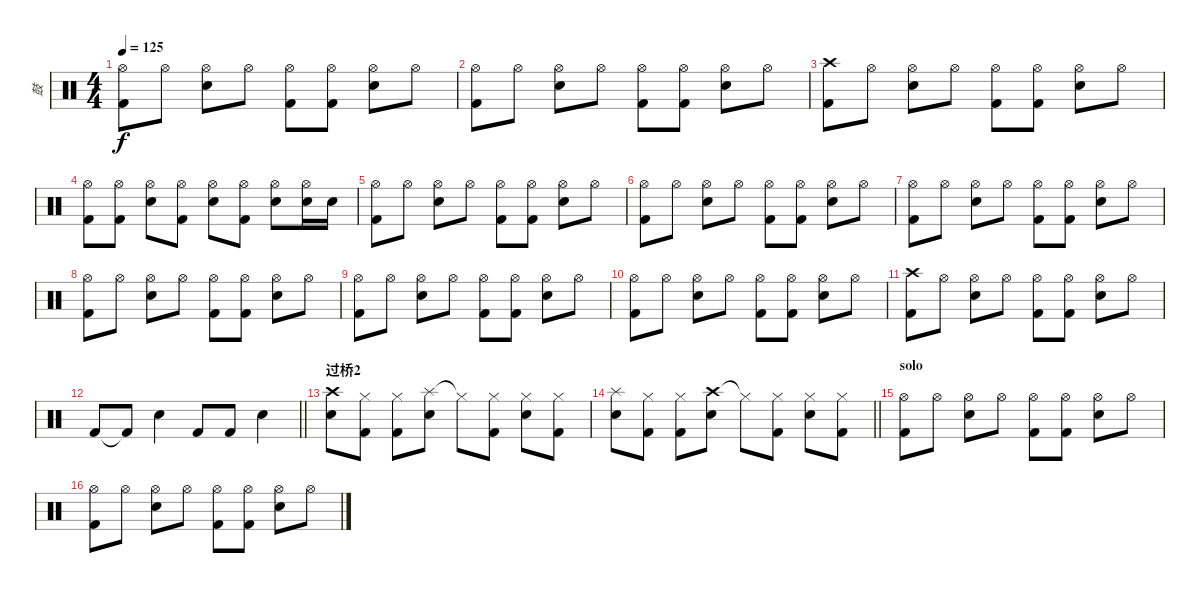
\track ("鼓" "鼓") {instrument percussion}
\staff {score}
\articulation defaults
\ts (4 4)
\tempo 125
\clef neutral
\ks c
("Hi-Hat (open)" "Kick (hit) 2").8{dy f} "Hi-Hat (open)".8 ("Hi-Hat (open)" "Snare (hit) 2").8 "Hi-Hat (open)".8 ("Hi-Hat (open)" "Kick (hit) 2").8 ("Hi-Hat (open)" "Kick (hit) 2").8 ("Hi-Hat (open)" "Snare (hit) 2").8 "Hi-Hat (open)".8 |
("Hi-Hat (open)" "Kick (hit) 2").8 "Hi-Hat (open)".8 ("Hi-Hat (open)" "Snare (hit) 2").8 "Hi-Hat (open)".8 ("Hi-Hat (open)" "Kick (hit) 2").8 ("Hi-Hat (open)" "Kick (hit) 2").8 ("Hi-Hat (open)" "Snare (hit) 2").8 "Hi-Hat (open)".8 |
("Crash high (hit)" "Kick (hit) 2").8 "Hi-Hat (open)".8 ("Hi-Hat (open)" "Snare (hit) 2").8 "Hi-Hat (open)".8 ("Hi-Hat (open)" "Kick (hit) 2").8 ("Hi-Hat (open)" "Kick (hit) 2").8 ("Hi-Hat (open)" "Snare (hit) 2").8 "Hi-Hat (open)".8 |
("Hi-Hat (open)" "Kick (hit) 2").8 ("Hi-Hat (open)" "Kick (hit) 2").8 ("Hi-Hat (open)" "Snare (hit) 2").8 ("Hi-Hat (open)" "Kick (hit) 2").8 ("Hi-Hat (open)" "Snare (hit) 2").8 ("Hi-Hat (open)" "Kick (hit) 2").8 ("Hi-Hat (open)" "Snare (hit) 2").8 ("Hi-Hat (open)" "Snare (hit) 2").16 "Snare (hit) 2".16 |
("Hi-Hat (open)" "Kick (hit) 2").8 "Hi-Hat (open)".8 ("Hi-Hat (open)" "Snare (hit) 2").8 "Hi-Hat (open)".8 ("Hi-Hat (open)" "Kick (hit) 2").8 ("Hi-Hat (open)" "Kick (hit) 2").8 ("Hi-Hat (open)" "Snare (hit) 2").8 "Hi-Hat (open)".8 |
("Hi-Hat (open)" "Kick (hit) 2").8 "Hi-Hat (open)".8 ("Hi-Hat (open)" "Snare (hit) 2").8 "Hi-Hat (open)".8 ("Hi-Hat (open)" "Kick (hit) 2").8 ("Hi-Hat (open)" "Kick (hit) 2").8 ("Hi-Hat (open)" "Snare (hit) 2").8 "Hi-Hat (open)".8 |
("Hi-Hat (open)" "Kick (hit) 2").8 "Hi-Hat (open)".8 ("Hi-Hat (open)" "Snare (hit) 2").8 "Hi-Hat (open)".8 ("Hi-Hat (open)" "Kick (hit) 2").8 ("Hi-Hat (open)" "Kick (hit) 2").8 ("Hi-Hat (open)" "Snare (hit) 2").8 "Hi-Hat (open)".8 |
("Hi-Hat (open)" "Kick (hit) 2").8 "Hi-Hat (open)".8 ("Hi-Hat (open)" "Snare (hit) 2").8 "Hi-Hat (open)".8 ("Hi-Hat (open)" "Kick (hit) 2").8 ("Hi-Hat (open)" "Kick (hit) 2").8 ("Hi-Hat (open)" "Snare (hit) 2").8 "Hi-Hat (open)".8 |
("Hi-Hat (open)" "Kick (hit) 2").8 "Hi-Hat (open)".8 ("Hi-Hat (open)" "Snare (hit) 2").8 "Hi-Hat (open)".8 ("Hi-Hat (open)" "Kick (hit) 2").8 ("Hi-Hat (open)" "Kick (hit) 2").8 ("Hi-Hat (open)" "Snare (hit) 2").8 "Hi-Hat (open)".8 |
("Hi-Hat (open)" "Kick (hit) 2").8 "Hi-Hat (open)".8 ("Hi-Hat (open)" "Snare (hit) 2").8 "Hi-Hat (open)".8 ("Hi-Hat (open)" "Kick (hit) 2").8 ("Hi-Hat (open)" "Kick (hit) 2").8 ("Hi-Hat (open)" "Snare (hit) 2").8 "Hi-Hat (open)".8 |
("Crash high (hit)" "Kick (hit) 2").8 "Hi-Hat (open)".8 ("Hi-Hat (open)" "Snare (hit) 2").8 "Hi-Hat (open)".8 ("Hi-Hat (open)" "Kick (hit) 2").8 ("Hi-Hat (open)" "Kick (hit) 2").8 ("Hi-Hat (open)" "Snare (hit) 2").8 "Hi-Hat (open)".8 |
\barLineRight lightlight "Kick (hit) 2".8 "Kick (hit) 2"{t}.8 "Snare (hit) 2".4 "Kick (hit) 2".8 "Kick (hit) 2".8 "Snare (hit) 2".4
|
\section ("" "过桥2")
("Crash high (hit)" "Snare (hit) 2").8 ("Hi-Hat (closed)" "Kick (hit) 2").8 ("Hi-Hat (closed)" "Kick (hit) 2").8 ("Splash (hit)" "Snare (hit) 2").8 "Hi-Hat (closed)"{t}.8 ("Hi-Hat (closed)" "Kick (hit) 2").8 ("Hi-Hat (closed)" "Snare (hit) 2").8 ("Hi-Hat (closed)" "Kick (hit) 2").8 |
\barLineRight lightlight
("Splash (hit)" "Snare (hit) 2").8 ("Hi-Hat (closed)" "Kick (hit) 2").8 ("Hi-Hat (closed)" "Kick (hit) 2").8 ("Crash high (hit)" "Snare (hit) 2").8 "Hi-Hat (closed)"{t}.8 ("Hi-Hat (closed)" "Kick (hit) 2").8 ("Hi-Hat (closed)" "Snare (hit) 2").8 ("Hi-Hat (closed)" "Kick (hit) 2").8 |
\section ("" "solo")
("Hi-Hat (open)" "Kick (hit) 2").8 "Hi-Hat (open)".8 ("Hi-Hat (open)" "Snare (hit) 2").8 "Hi-Hat (open)".8 ("Hi-Hat (open)" "Kick (hit) 2").8 ("Hi-Hat (open)" "Kick (hit) 2").8 ("Hi-Hat (open)" "Snare (hit) 2").8 "Hi-Hat (open)".8 |
("Hi-Hat (open)" "Kick (hit) 2").8 "Hi-Hat (open)".8 ("Hi-Hat (open)" "Snare (hit) 2").8 "Hi-Hat (open)".8 ("Hi-Hat (open)" "Kick (hit) 2").8 ("Hi-Hat (open)" "Kick (hit) 2").8 ("Hi-Hat (open)" "Snare (hit) 2").8 "Hi-Hat (open)".8
